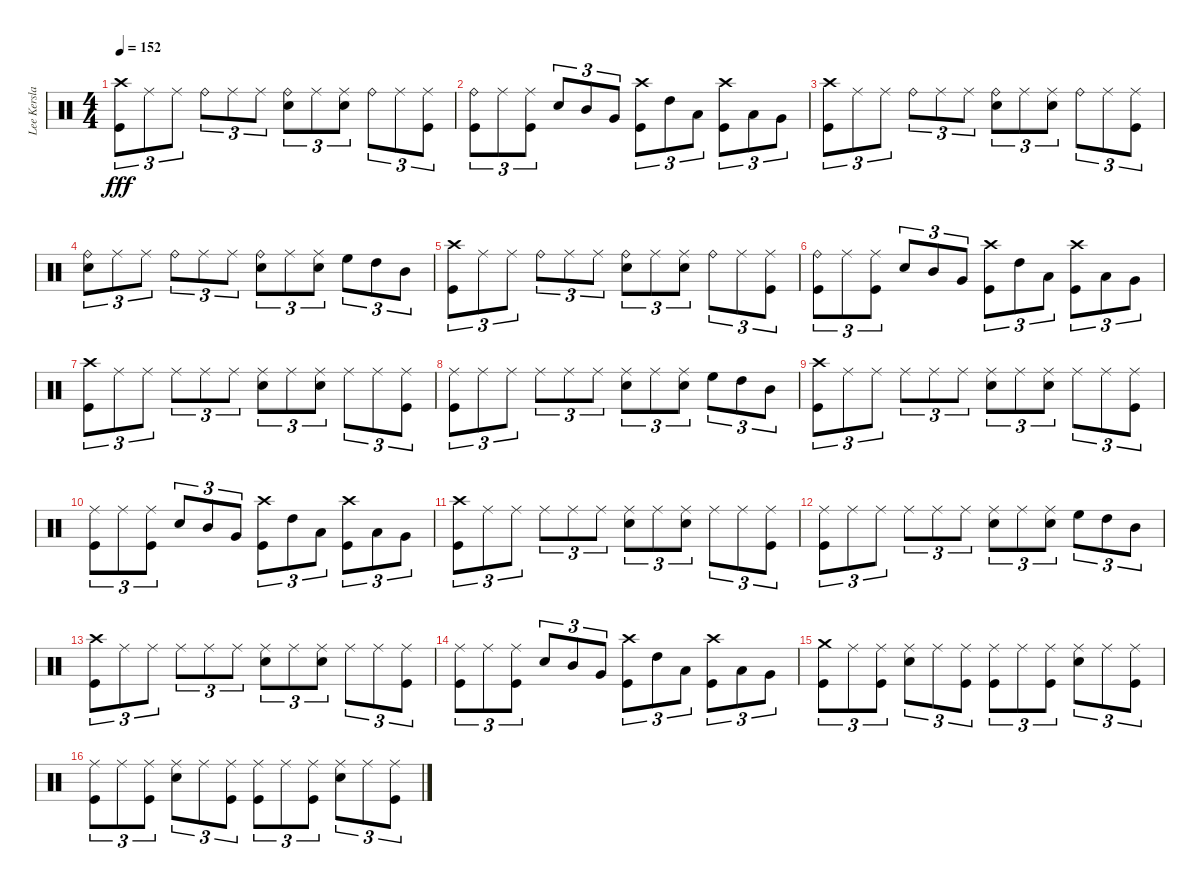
\track ("Lee Kerslake" "Lee Kersla") {instrument percussion}
\staff {score}
\articulation defaults
\ts (4 4)
\tempo 152
\clef neutral
\ks c
("Kick (hit)" "Crash high (hit)").8{tu (3 2) dy fff} "Ride (middle)".8{tu (3 2)} "Ride (middle)".8{tu (3 2)} "Ride (bell)".8{tu (3 2)} "Ride (middle)".8{tu (3 2)} "Ride (middle)".8{tu (3 2)} ("Electric Snare (hit)" "Ride (bell)").8{tu (3 2)} "Ride (middle)".8{tu (3 2)} ("Ride (middle)" "Electric Snare (hit)").8{tu (3 2)} "Ride (bell)".8{tu (3 2)} "Ride (middle)".8{tu (3 2)} ("Ride (middle)" "Kick (hit)").8{tu (3 2)} |
("Kick (hit)" "Ride (bell)").8{tu (3 2)} "Ride (middle)".8{tu (3 2)} ("Ride (middle)" "Kick (hit)").8{tu (3 2)} "Electric Snare (hit)".8{tu (3 2)} "Mid Tom (hit)".8{tu (3 2)} "Very Low Tom (hit)".8{tu (3 2)} ("Kick (hit)" "Crash high (hit)").8{tu (3 2)} "High Tom (hit)".8{tu (3 2)} "Low Tom (hit)".8{tu (3 2)} ("Crash high (hit)" "Kick (hit)").8{tu (3 2)} "Low Tom (hit)".8{tu (3 2)} "Very Low Tom (hit)".8{tu (3 2)} |
("Kick (hit)" "Crash high (hit)").8{tu (3 2)} "Ride (middle)".8{tu (3 2)} "Ride (middle)".8{tu (3 2)} "Ride (bell)".8{tu (3 2)} "Ride (middle)".8{tu (3 2)} "Ride (middle)".8{tu (3 2)} ("Electric Snare (hit)" "Ride (bell)").8{tu (3 2)} "Ride (middle)".8{tu (3 2)} ("Ride (middle)" "Electric Snare (hit)").8{tu (3 2)} "Ride (bell)".8{tu (3 2)} "Ride (middle)".8{tu (3 2)} ("Ride (middle)" "Kick (hit)").8{tu (3 2)} |
("Snare (hit)" "Ride (bell)").8{tu (3 2)} "Ride (middle)".8{tu (3 2)} "Ride (middle)".8{tu (3 2)} "Ride (bell)".8{tu (3 2)} "Ride (middle)".8{tu (3 2)} "Ride (middle)".8{tu (3 2)} ("Electric Snare (hit)" "Ride (bell)").8{tu (3 2)} "Ride (middle)".8{tu (3 2)} ("Ride (middle)" "Electric Snare (hit)").8{tu (3 2)} "High Floor Tom (hit)".8{tu (3 2)} "High Tom (hit)".8{tu (3 2)} "Mid Tom (hit)".8{tu (3 2)} |
("Kick (hit)" "Crash high (hit)").8{tu (3 2)} "Ride (middle)".8{tu (3 2)} "Ride (middle)".8{tu (3 2)} "Ride (bell)".8{tu (3 2)} "Ride (middle)".8{tu (3 2)} "Ride (middle)".8{tu (3 2)} ("Electric Snare (hit)" "Ride (bell)").8{tu (3 2)} "Ride (middle)".8{tu (3 2)} ("Ride (middle)" "Electric Snare (hit)").8{tu (3 2)} "Ride (bell)".8{tu (3 2)} "Ride (middle)".8{tu (3 2)} ("Ride (middle)" "Kick (hit)").8{tu (3 2)} |
("Kick (hit)" "Ride (bell)").8{tu (3 2)} "Ride (middle)".8{tu (3 2)} ("Ride (middle)" "Kick (hit)").8{tu (3 2)} "Electric Snare (hit)".8{tu (3 2)} "Mid Tom (hit)".8{tu (3 2)} "Very Low Tom (hit)".8{tu (3 2)} ("Kick (hit)" "Crash high (hit)").8{tu (3 2)} "High Tom (hit)".8{tu (3 2)} "Low Tom (hit)".8{tu (3 2)} ("Crash high (hit)" "Kick (hit)").8{tu (3 2)} "Low Tom (hit)".8{tu (3 2)} "Very Low Tom (hit)".8{tu (3 2)} |
("Kick (hit)" "Crash high (hit)").8{tu (3 2)} "Ride (middle)".8{tu (3 2)} "Ride (middle)".8{tu (3 2)} "Ride (middle)".8{tu (3 2)} "Ride (middle)".8{tu (3 2)} "Ride (middle)".8{tu (3 2)} ("Electric Snare (hit)" "Ride (middle)").8{tu (3 2)} "Ride (middle)".8{tu (3 2)} ("Ride (middle)" "Electric Snare (hit)").8{tu (3 2)} "Ride (middle)".8{tu (3 2)} "Ride (middle)".8{tu (3 2)} ("Ride (middle)" "Kick (hit)").8{tu (3 2)} |
("Kick (hit)" "Ride (middle)").8{tu (3 2)} "Ride (middle)".8{tu (3 2)} "Ride (middle)".8{tu (3 2)} "Ride (middle)".8{tu (3 2)} "Ride (middle)".8{tu (3 2)} "Ride (middle)".8{tu (3 2)} ("Electric Snare (hit)" "Ride (middle)").8{tu (3 2)} "Ride (middle)".8{tu (3 2)} ("Ride (middle)" "Electric Snare (hit)").8{tu (3 2)} "High Floor Tom (hit)".8{tu (3 2)} "High Tom (hit)".8{tu (3 2)} "Mid Tom (hit)".8{tu (3 2)} |
("Kick (hit)" "Crash high (hit)").8{tu (3 2)} "Ride (middle)".8{tu (3 2)} "Ride (middle)".8{tu (3 2)} "Ride (middle)".8{tu (3 2)} "Ride (middle)".8{tu (3 2)} "Ride (middle)".8{tu (3 2)} ("Electric Snare (hit)" "Ride (middle)").8{tu (3 2)} "Ride (middle)".8{tu (3 2)} ("Ride (middle)" "Electric Snare (hit)").8{tu (3 2)} "Ride (middle)".8{tu (3 2)} "Ride (middle)".8{tu (3 2)} ("Ride (middle)" "Kick (hit)").8{tu (3 2)} |
("Kick (hit)" "Ride (middle)").8{tu (3 2)} "Ride (middle)".8{tu (3 2)} ("Ride (middle)" "Kick (hit)").8{tu (3 2)} "Electric Snare (hit)".8{tu (3 2)} "Mid Tom (hit)".8{tu (3 2)} "Very Low Tom (hit)".8{tu (3 2)} ("Kick (hit)" "Crash high (hit)").8{tu (3 2)} "High Tom (hit)".8{tu (3 2)} "Low Tom (hit)".8{tu (3 2)} ("Crash high (hit)" "Kick (hit)").8{tu (3 2)} "Low Tom (hit)".8{tu (3 2)} "Very Low Tom (hit)".8{tu (3 2)} |
("Kick (hit)" "Crash high (hit)").8{tu (3 2)} "Ride (middle)".8{tu (3 2)} "Ride (middle)".8{tu (3 2)} "Ride (middle)".8{tu (3 2)} "Ride (middle)".8{tu (3 2)} "Ride (middle)".8{tu (3 2)} ("Electric Snare (hit)" "Ride (middle)").8{tu (3 2)} "Ride (middle)".8{tu (3 2)} ("Ride (middle)" "Electric Snare (hit)").8{tu (3 2)} "Ride (middle)".8{tu (3 2)} "Ride (middle)".8{tu (3 2)} ("Ride (middle)" "Kick (hit)").8{tu (3 2)} |
("Kick (hit)" "Ride (middle)").8{tu (3 2)} "Ride (middle)".8{tu (3 2)} "Ride (middle)".8{tu (3 2)} "Ride (middle)".8{tu (3 2)} "Ride (middle)".8{tu (3 2)} "Ride (middle)".8{tu (3 2)} ("Electric Snare (hit)" "Ride (middle)").8{tu (3 2)} "Ride (middle)".8{tu (3 2)} ("Ride (middle)" "Electric Snare (hit)").8{tu (3 2)} "High Floor Tom (hit)".8{tu (3 2)} "High Tom (hit)".8{tu (3 2)} "Mid Tom (hit)".8{tu (3 2)} |
("Kick (hit)" "Crash high (hit)").8{tu (3 2)} "Ride (middle)".8{tu (3 2)} "Ride (middle)".8{tu (3 2)} "Ride (middle)".8{tu (3 2)} "Ride (middle)".8{tu (3 2)} "Ride (middle)".8{tu (3 2)} ("Electric Snare (hit)" "Ride (middle)").8{tu (3 2)} "Ride (middle)".8{tu (3 2)} ("Ride (middle)" "Electric Snare (hit)").8{tu (3 2)} "Ride (middle)".8{tu (3 2)} "Ride (middle)".8{tu (3 2)} ("Ride (middle)" "Kick (hit)").8{tu (3 2)} |
("Kick (hit)" "Ride (middle)").8{tu (3 2)} "Ride (middle)".8{tu (3 2)} ("Ride (middle)" "Kick (hit)").8{tu (3 2)} "Electric Snare (hit)".8{tu (3 2)} "Mid Tom (hit)".8{tu (3 2)} "Very Low Tom (hit)".8{tu (3 2)} ("Kick (hit)" "Crash high (hit)").8{tu (3 2)} "High Tom (hit)".8{tu (3 2)} "Low Tom (hit)".8{tu (3 2)} ("Crash high (hit)" "Kick (hit)").8{tu (3 2)} "Low Tom (hit)".8{tu (3 2)} "Very Low Tom (hit)".8{tu (3 2)} |
("Crash medium (hit)" "Kick (hit)").8{tu (3 2)} "Ride (middle)".8{tu (3 2)} ("Ride (middle)" "Kick (hit)").8{tu (3 2)} ("Ride (middle)" "Electric Snare (hit)").8{tu (3 2)} "Ride (middle)".8{tu (3 2)} ("Ride (middle)" "Kick (hit)").8{tu (3 2)} ("Ride (middle)" "Kick (hit)").8{tu (3 2)} "Ride (middle)".8{tu (3 2)} ("Ride (middle)" "Kick (hit)").8{tu (3 2)} ("Ride (middle)" "Electric Snare (hit)").8{tu (3 2)} "Ride (middle)".8{tu (3 2)} ("Ride (middle)" "Kick (hit)").8{tu (3 2)} |
("Ride (middle)" "Kick (hit)").8{tu (3 2)} "Ride (middle)".8{tu (3 2)} ("Ride (middle)" "Kick (hit)").8{tu (3 2)} ("Ride (middle)" "Electric Snare (hit)").8{tu (3 2)} "Ride (middle)".8{tu (3 2)} ("Ride (middle)" "Kick (hit)").8{tu (3 2)} ("Ride (middle)" "Kick (hit)").8{tu (3 2)} "Ride (middle)".8{tu (3 2)} ("Ride (middle)" "Kick (hit)").8{tu (3 2)} ("Ride (middle)" "Electric Snare (hit)").8{tu (3 2)} "Ride (middle)".8{tu (3 2)} ("Ride (middle)" "Kick (hit)").8{tu (3 2)}
